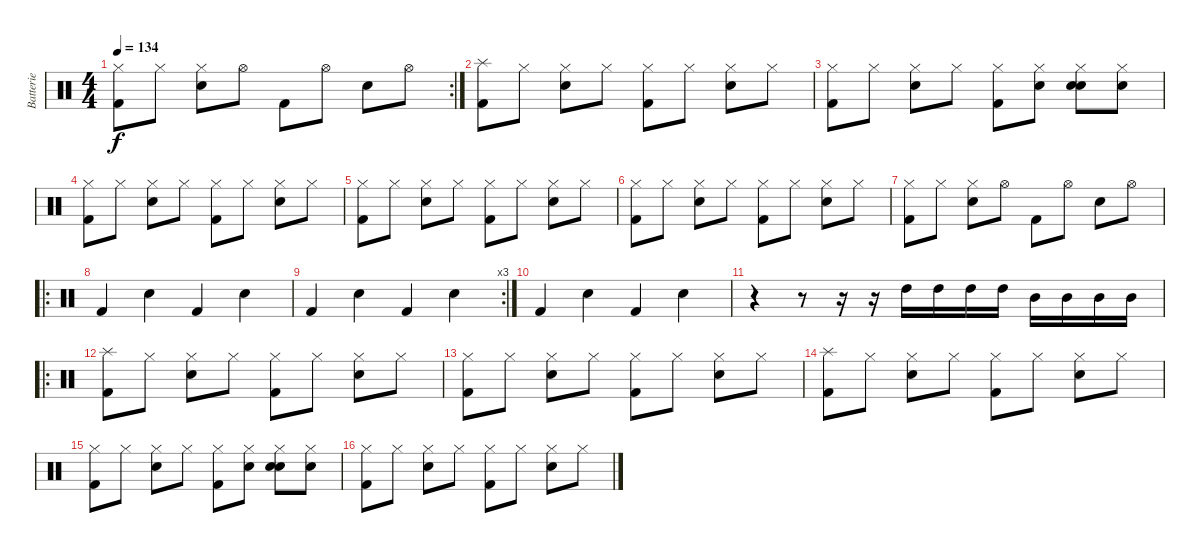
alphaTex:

\track ("Batterie" "Batterie") {instrument percussion}
\staff {score}
\articulation defaults
\rc 2
\ts (4 4)
\tempo 134
\clef neutral
\ks c
("Kick (hit) 2" "Hi-Hat (closed)").8{dy f} "Hi-Hat (closed)".8 ("Snare (hit) 2" "Hi-Hat (closed)").8 "Hi-Hat (open)".8 "Kick (hit) 2".8 "Hi-Hat (open)".8 "Snare (hit) 2".8 "Hi-Hat (open)".8 |
("Kick (hit) 2" "Splash (hit)").8 "Hi-Hat (closed)".8 ("Snare (hit) 2" "Hi-Hat (closed)").8 "Hi-Hat (closed)".8 ("Kick (hit) 2" "Hi-Hat (closed)").8 "Hi-Hat (closed)".8 ("Snare (hit) 2" "Hi-Hat (closed)").8 "Hi-Hat (closed)".8 |
("Kick (hit) 2" "Hi-Hat (closed)").8 "Hi-Hat (closed)".8 ("Snare (hit) 2" "Hi-Hat (closed)").8 "Hi-Hat (closed)".8 ("Kick (hit) 2" "Hi-Hat (closed)").8 ("Hi-Hat (closed)" "Hand Clap (hit)").8 ("Snare (hit) 2" "Hi-Hat (closed)" "Hand Clap (hit)").8 ("Hi-Hat (closed)" "Hand Clap (hit)").8 |
("Kick (hit) 2" "Hi-Hat (closed)").8 "Hi-Hat (closed)".8 ("Snare (hit) 2" "Hi-Hat (closed)").8 "Hi-Hat (closed)".8 ("Kick (hit) 2" "Hi-Hat (closed)").8 "Hi-Hat (closed)".8 ("Snare (hit) 2" "Hi-Hat (closed)").8 "Hi-Hat (closed)".8 |
("Kick (hit) 2" "Hi-Hat (closed)").8 "Hi-Hat (closed)".8 ("Snare (hit) 2" "Hi-Hat (closed)").8 "Hi-Hat (closed)".8 ("Kick (hit) 2" "Hi-Hat (closed)").8 "Hi-Hat (closed)".8 ("Snare (hit) 2" "Hi-Hat (closed)").8 "Hi-Hat (closed)".8 |
("Kick (hit) 2" "Hi-Hat (closed)").8 "Hi-Hat (closed)".8 ("Snare (hit) 2" "Hi-Hat (closed)").8 "Hi-Hat (closed)".8 ("Kick (hit) 2" "Hi-Hat (closed)").8 "Hi-Hat (closed)".8 ("Snare (hit) 2" "Hi-Hat (closed)").8 "Hi-Hat (closed)".8 |
("Kick (hit) 2" "Hi-Hat (closed)").8 "Hi-Hat (closed)".8 ("Snare (hit) 2" "Hi-Hat (closed)").8 "Hi-Hat (open)".8 "Kick (hit) 2".8 "Hi-Hat (open)".8 "Snare (hit) 2".8 "Hi-Hat (open)".8 |
\ro "Kick (hit) 2".4 "Snare (hit) 2".4 "Kick (hit) 2".4 "Snare (hit) 2".4
|
\rc 3 "Kick (hit) 2".4 "Snare (hit) 2".4 "Kick (hit) 2".4 "Snare (hit) 2".4
|
"Kick (hit) 2".4 "Snare (hit) 2".4 "Kick (hit) 2".4 "Snare (hit) 2".4 |
r.4 r.8 r.16 r.16 "High Tom (hit)".16 "High Tom (hit)".16 "High Tom (hit)".16 "High Tom (hit)".16 "Mid Tom (hit)".16 "Mid Tom (hit)".16 "Mid Tom (hit)".16 "Mid Tom (hit)".16 |
\ro
("Kick (hit) 2" "Splash (hit)").8 "Hi-Hat (closed)".8 ("Snare (hit) 2" "Hi-Hat (closed)").8 "Hi-Hat (closed)".8 ("Kick (hit) 2" "Hi-Hat (closed)").8 "Hi-Hat (closed)".8 ("Snare (hit) 2" "Hi-Hat (closed)").8 "Hi-Hat (closed)".8 |
("Kick (hit) 2" "Hi-Hat (closed)").8 "Hi-Hat (closed)".8 ("Snare (hit) 2" "Hi-Hat (closed)").8 "Hi-Hat (closed)".8 ("Kick (hit) 2" "Hi-Hat (closed)").8 "Hi-Hat (closed)".8 ("Snare (hit) 2" "Hi-Hat (closed)").8 "Hi-Hat (closed)".8 |
("Kick (hit) 2" "Splash (hit)").8 "Hi-Hat (closed)".8 ("Snare (hit) 2" "Hi-Hat (closed)").8 "Hi-Hat (closed)".8 ("Kick (hit) 2" "Hi-Hat (closed)").8 "Hi-Hat (closed)".8 ("Snare (hit) 2" "Hi-Hat (closed)").8 "Hi-Hat (closed)".8 |
("Kick (hit) 2" "Hi-Hat (closed)").8 "Hi-Hat (closed)".8 ("Snare (hit) 2" "Hi-Hat (closed)").8 "Hi-Hat (closed)".8 ("Kick (hit) 2" "Hi-Hat (closed)").8 ("Hi-Hat (closed)" "Hand Clap (hit)").8 ("Snare (hit) 2" "Hi-Hat (closed)" "Hand Clap (hit)").8 ("Hi-Hat (closed)" "Hand Clap (hit)").8 |
("Kick (hit) 2" "Hi-Hat (closed)").8 "Hi-Hat (closed)".8 ("Snare (hit) 2" "Hi-Hat (closed)").8 "Hi-Hat (closed)".8 ("Kick (hit) 2" "Hi-Hat (closed)").8 "Hi-Hat (closed)".8 ("Snare (hit) 2" "Hi-Hat (closed)").8 "Hi-Hat (closed)".8
